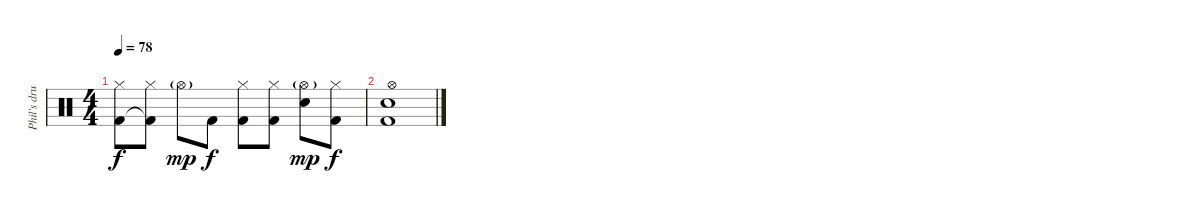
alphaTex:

\track ("Phil's drums" "Phil's dru") {instrument percussion}
\staff {score}
\articulation defaults
\ts (4 4)
\tempo 78
\clef neutral
\ks c
("Kick (hit) 2" "Hi-Hat (closed)").8{dy f} ("Kick (hit) 2"{t} "Hi-Hat (closed)").8 "Hi-Hat (open)"{g}.8{dy mp} "Kick (hit) 2".8{dy f} ("Kick (hit) 2" "Hi-Hat (closed)").8 ("Kick (hit) 2" "Hi-Hat (closed)").8 ("Snare (hit) 2" "Hi-Hat (open)"{g}).8{dy mp} ("Kick (hit) 2" "Hi-Hat (closed)").8{dy f} |
("Kick (hit) 2" "Snare (hit) 2" "Hi-Hat (open)").1
